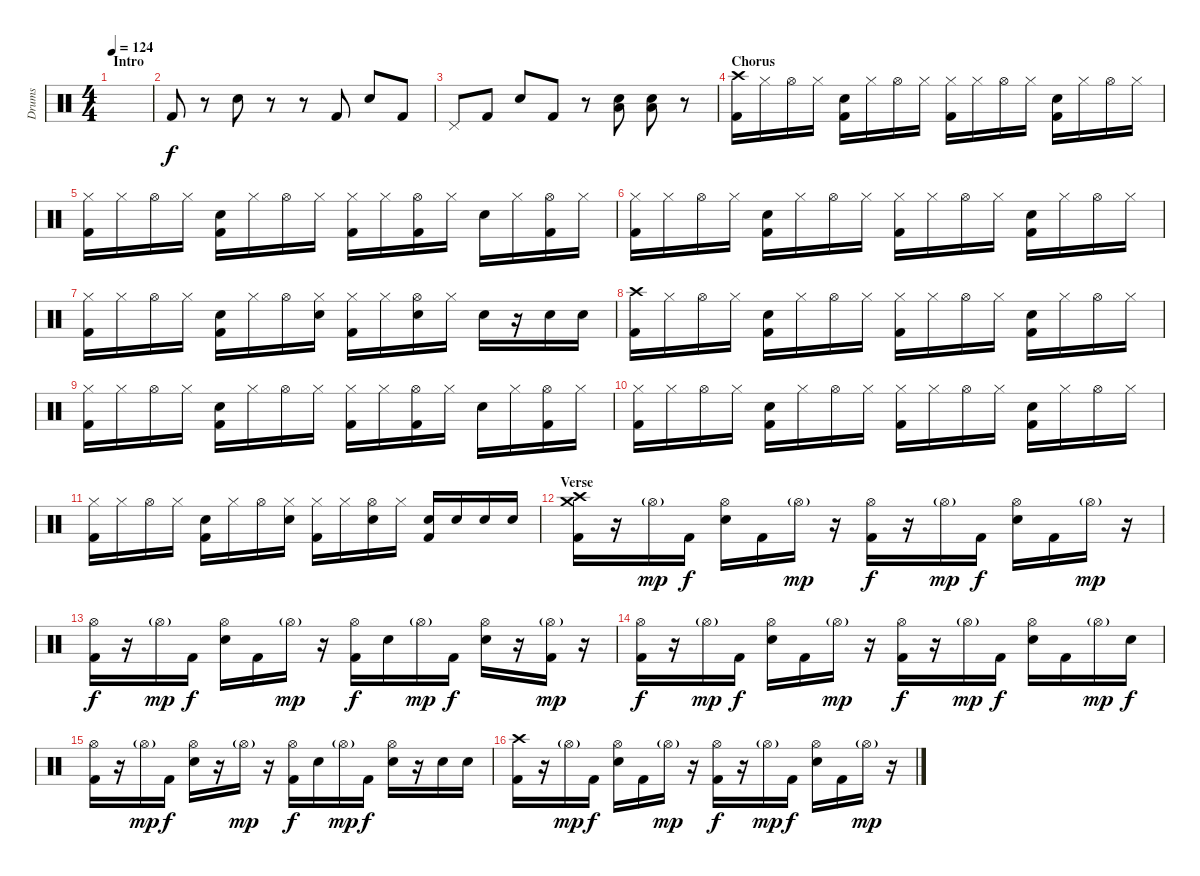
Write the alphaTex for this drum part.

\track ("Drums" "Drums") {instrument percussion}
\staff {score}
\articulation defaults
\ts (4 4)
\section ("" "Intro")
\tempo 124
\clef neutral
\ks c
|
"Kick (hit) 2".8 r.8 "Electric Snare (hit)".8 r.8 r.8 "Kick (hit) 2".8 "Electric Snare (hit)".8 "Kick (hit) 2".8 |
"Pedal Hi-Hat (hit)".8 "Kick (hit) 2".8 "Electric Snare (hit)".8 "Kick (hit) 2".8 r.8 ("Electric Snare (hit)" "Low Tom (hit)").8 ("Electric Snare (hit)" "Low Tom (hit)").8 r.8 |
\section ("" "Chorus")
("Crash high (hit)" "Kick (hit) 2").16 "Hi-Hat (closed)".16 "Hi-Hat (open)".16 "Hi-Hat (closed)".16 ("Electric Snare (hit)" "Kick (hit) 2").16 "Hi-Hat (closed)".16 "Hi-Hat (open)".16 "Hi-Hat (closed)".16 ("Hi-Hat (closed)" "Kick (hit) 2").16 "Hi-Hat (closed)".16 "Hi-Hat (open)".16 "Hi-Hat (closed)".16 ("Electric Snare (hit)" "Kick (hit) 2").16 "Hi-Hat (closed)".16 "Hi-Hat (open)".16 "Hi-Hat (closed)".16 |
("Hi-Hat (closed)" "Kick (hit) 2").16 "Hi-Hat (closed)".16 "Hi-Hat (open)".16 "Hi-Hat (closed)".16 ("Electric Snare (hit)" "Kick (hit) 2").16 "Hi-Hat (closed)".16 "Hi-Hat (open)".16 "Hi-Hat (closed)".16 ("Hi-Hat (closed)" "Kick (hit) 2").16 "Hi-Hat (closed)".16 ("Hi-Hat (open)" "Kick (hit) 2").16 "Hi-Hat (closed)".16 "Electric Snare (hit)".16 "Hi-Hat (closed)".16 ("Hi-Hat (open)" "Kick (hit) 2").16 "Hi-Hat (closed)".16 |
("Hi-Hat (closed)" "Kick (hit) 2").16 "Hi-Hat (closed)".16 "Hi-Hat (open)".16 "Hi-Hat (closed)".16 ("Electric Snare (hit)" "Kick (hit) 2").16 "Hi-Hat (closed)".16 "Hi-Hat (open)".16 "Hi-Hat (closed)".16 ("Hi-Hat (closed)" "Kick (hit) 2").16 "Hi-Hat (closed)".16 "Hi-Hat (open)".16 "Hi-Hat (closed)".16 ("Electric Snare (hit)" "Kick (hit) 2").16 "Hi-Hat (closed)".16 "Hi-Hat (open)".16 "Hi-Hat (closed)".16 |
("Hi-Hat (closed)" "Kick (hit) 2").16 "Hi-Hat (closed)".16 "Hi-Hat (open)".16 "Hi-Hat (closed)".16 ("Electric Snare (hit)" "Kick (hit) 2").16 "Hi-Hat (closed)".16 "Hi-Hat (open)".16 ("Hi-Hat (closed)" "Electric Snare (hit)").16 ("Hi-Hat (closed)" "Kick (hit) 2").16 "Hi-Hat (closed)".16 ("Hi-Hat (open)" "Electric Snare (hit)").16 "Hi-Hat (closed)".16 "Electric Snare (hit)".16 r.16 "Electric Snare (hit)".16 "Electric Snare (hit)".16 |
("Crash high (hit)" "Kick (hit) 2").16 "Hi-Hat (closed)".16 "Hi-Hat (open)".16 "Hi-Hat (closed)".16 ("Electric Snare (hit)" "Kick (hit) 2").16 "Hi-Hat (closed)".16 "Hi-Hat (open)".16 "Hi-Hat (closed)".16 ("Hi-Hat (closed)" "Kick (hit) 2").16 "Hi-Hat (closed)".16 "Hi-Hat (open)".16 "Hi-Hat (closed)".16 ("Electric Snare (hit)" "Kick (hit) 2").16 "Hi-Hat (closed)".16 "Hi-Hat (open)".16 "Hi-Hat (closed)".16 |
("Hi-Hat (closed)" "Kick (hit) 2").16 "Hi-Hat (closed)".16 "Hi-Hat (open)".16 "Hi-Hat (closed)".16 ("Electric Snare (hit)" "Kick (hit) 2").16 "Hi-Hat (closed)".16 "Hi-Hat (open)".16 "Hi-Hat (closed)".16 ("Hi-Hat (closed)" "Kick (hit) 2").16 "Hi-Hat (closed)".16 ("Hi-Hat (open)" "Kick (hit) 2").16 "Hi-Hat (closed)".16 "Electric Snare (hit)".16 "Hi-Hat (closed)".16 ("Hi-Hat (open)" "Kick (hit) 2").16 "Hi-Hat (closed)".16 |
("Hi-Hat (closed)" "Kick (hit) 2").16 "Hi-Hat (closed)".16 "Hi-Hat (open)".16 "Hi-Hat (closed)".16 ("Electric Snare (hit)" "Kick (hit) 2").16 "Hi-Hat (closed)".16 "Hi-Hat (open)".16 "Hi-Hat (closed)".16 ("Hi-Hat (closed)" "Kick (hit) 2").16 "Hi-Hat (closed)".16 "Hi-Hat (open)".16 "Hi-Hat (closed)".16 ("Electric Snare (hit)" "Kick (hit) 2").16 "Hi-Hat (closed)".16 "Hi-Hat (open)".16 "Hi-Hat (closed)".16 |
("Hi-Hat (closed)" "Kick (hit) 2").16 "Hi-Hat (closed)".16 "Hi-Hat (open)".16 "Hi-Hat (closed)".16 ("Electric Snare (hit)" "Kick (hit) 2").16 "Hi-Hat (closed)".16 "Hi-Hat (open)".16 ("Hi-Hat (closed)" "Electric Snare (hit)").16 ("Hi-Hat (closed)" "Kick (hit) 2").16 "Hi-Hat (closed)".16 ("Hi-Hat (open)" "Electric Snare (hit)").16 "Hi-Hat (closed)".16 ("Electric Snare (hit)" "Kick (hit) 2").16 "Electric Snare (hit)".16 "Electric Snare (hit)".16 "Electric Snare (hit)".16 |
\section ("" "Verse")
("Crash high (hit)" "Crash medium (hit)" "Kick (hit) 2").16 r.16 "Hi-Hat (open)"{g}.16{dy mp} "Kick (hit) 2".16{dy f} ("Hi-Hat (open)" "Electric Snare (hit)").16 "Kick (hit) 2".16 "Hi-Hat (open)"{g}.16{dy mp} r.16 ("Hi-Hat (open)" "Kick (hit) 2").16{dy f} r.16 "Hi-Hat (open)"{g}.16{dy mp} "Kick (hit) 2".16{dy f} ("Hi-Hat (open)" "Electric Snare (hit)").16 "Kick (hit) 2".16 "Hi-Hat (open)"{g}.16{dy mp} r.16 |
("Hi-Hat (open)" "Kick (hit) 2").16{dy f} r.16 "Hi-Hat (open)"{g}.16{dy mp} "Kick (hit) 2".16{dy f} ("Hi-Hat (open)" "Electric Snare (hit)").16 "Kick (hit) 2".16 "Hi-Hat (open)"{g}.16{dy mp} r.16 ("Hi-Hat (open)" "Kick (hit) 2").16{dy f} "Electric Snare (hit)".16 "Hi-Hat (open)"{g}.16{dy mp} "Kick (hit) 2".16{dy f} ("Hi-Hat (open)" "Electric Snare (hit)").16 r.16 ("Hi-Hat (open)"{g} "Kick (hit) 2").16{dy mp} r.16 |
("Hi-Hat (open)" "Kick (hit) 2").16{dy f} r.16 "Hi-Hat (open)"{g}.16{dy mp} "Kick (hit) 2".16{dy f} ("Hi-Hat (open)" "Electric Snare (hit)").16 "Kick (hit) 2".16 "Hi-Hat (open)"{g}.16{dy mp} r.16 ("Hi-Hat (open)" "Kick (hit) 2").16{dy f} r.16 "Hi-Hat (open)"{g}.16{dy mp} "Kick (hit) 2".16{dy f} ("Hi-Hat (open)" "Electric Snare (hit)").16 "Kick (hit) 2".16 "Hi-Hat (open)"{g}.16{dy mp} "Electric Snare (hit)".16{dy f} |
("Hi-Hat (open)" "Kick (hit) 2").16 r.16 "Hi-Hat (open)"{g}.16{dy mp} "Kick (hit) 2".16{dy f} ("Hi-Hat (open)" "Electric Snare (hit)").16 r.16 "Hi-Hat (open)"{g}.16{dy mp} r.16 ("Hi-Hat (open)" "Kick (hit) 2").16{dy f} "Electric Snare (hit)".16 "Hi-Hat (open)"{g}.16{dy mp} "Kick (hit) 2".16{dy f} ("Hi-Hat (open)" "Electric Snare (hit)").16 r.16 "Electric Snare (hit)".16 "Electric Snare (hit)".16 |
("Crash high (hit)" "Kick (hit) 2").16 r.16 "Hi-Hat (open)"{g}.16{dy mp} "Kick (hit) 2".16{dy f} ("Hi-Hat (open)" "Electric Snare (hit)").16 "Kick (hit) 2".16 "Hi-Hat (open)"{g}.16{dy mp} r.16 ("Hi-Hat (open)" "Kick (hit) 2").16{dy f} r.16 "Hi-Hat (open)"{g}.16{dy mp} "Kick (hit) 2".16{dy f} ("Hi-Hat (open)" "Electric Snare (hit)").16 "Kick (hit) 2".16 "Hi-Hat (open)"{g}.16{dy mp} r.16
